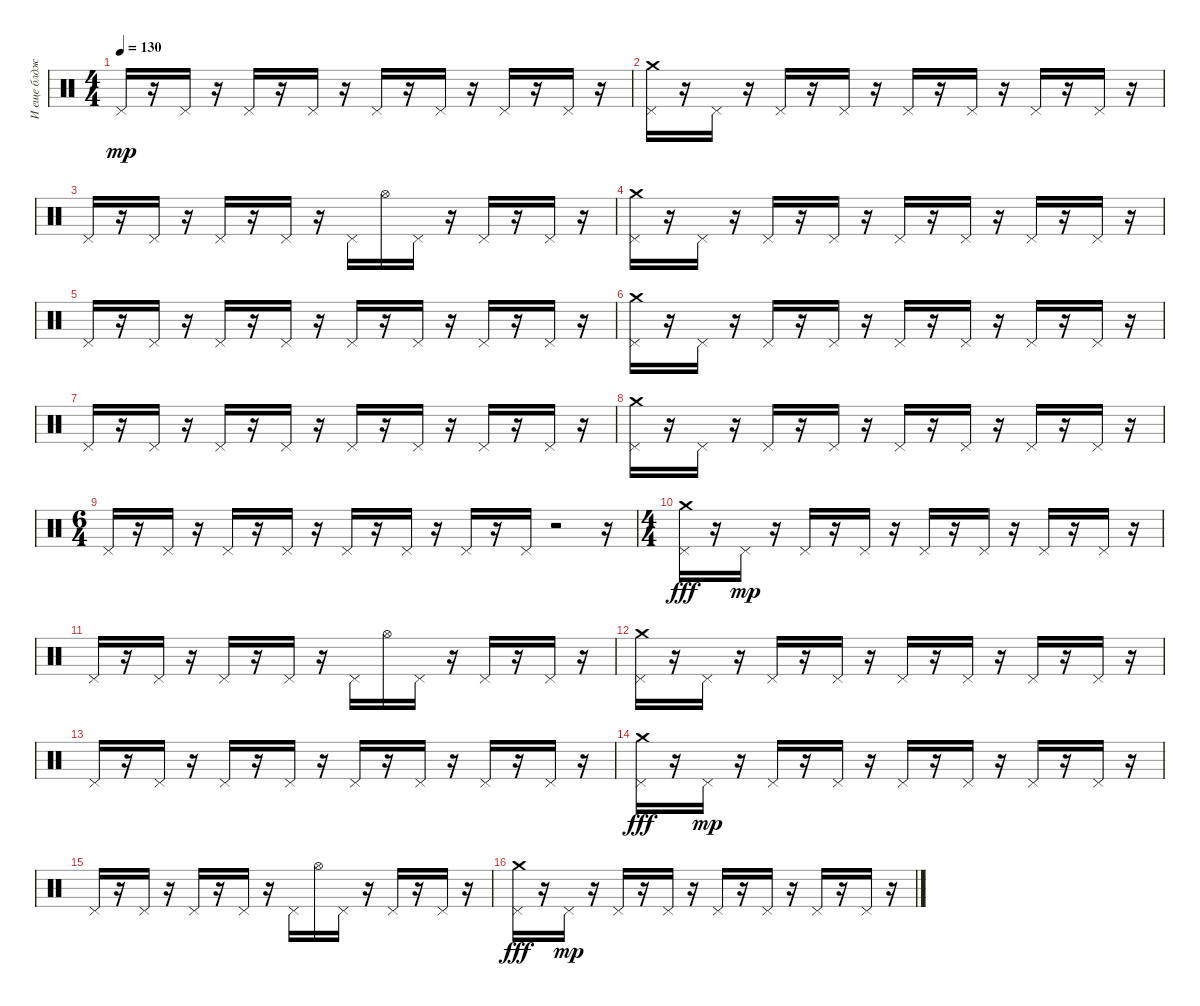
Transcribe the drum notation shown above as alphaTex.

\track ("И еще блджад" "И еще блдж") {instrument percussion}
\staff {score}
\articulation defaults
\ts (4 4)
\tempo 130
\clef neutral
\ks c "Pedal Hi-Hat (hit)".16{dy mp}
r.16 "Pedal Hi-Hat (hit)".16 r.16 "Pedal Hi-Hat (hit)".16 r.16 "Pedal Hi-Hat (hit)".16 r.16 "Pedal Hi-Hat (hit)".16 r.16 "Pedal Hi-Hat (hit)".16 r.16 "Pedal Hi-Hat (hit)".16 r.16 "Pedal Hi-Hat (hit)".16 r.16 |
("Crash medium (hit)" "Pedal Hi-Hat (hit)").16 r.16 "Pedal Hi-Hat (hit)".16 r.16 "Pedal Hi-Hat (hit)".16 r.16 "Pedal Hi-Hat (hit)".16 r.16 "Pedal Hi-Hat (hit)".16 r.16 "Pedal Hi-Hat (hit)".16 r.16 "Pedal Hi-Hat (hit)".16 r.16 "Pedal Hi-Hat (hit)".16 r.16 |
"Pedal Hi-Hat (hit)".16 r.16 "Pedal Hi-Hat (hit)".16 r.16 "Pedal Hi-Hat (hit)".16 r.16 "Pedal Hi-Hat (hit)".16 r.16 "Pedal Hi-Hat (hit)".16 "Hi-Hat (open)".16 "Pedal Hi-Hat (hit)".16 r.16 "Pedal Hi-Hat (hit)".16 r.16 "Pedal Hi-Hat (hit)".16 r.16 |
("Crash medium (hit)" "Pedal Hi-Hat (hit)").16 r.16 "Pedal Hi-Hat (hit)".16 r.16 "Pedal Hi-Hat (hit)".16 r.16 "Pedal Hi-Hat (hit)".16 r.16 "Pedal Hi-Hat (hit)".16 r.16 "Pedal Hi-Hat (hit)".16 r.16 "Pedal Hi-Hat (hit)".16 r.16 "Pedal Hi-Hat (hit)".16 r.16 |
"Pedal Hi-Hat (hit)".16 r.16 "Pedal Hi-Hat (hit)".16 r.16 "Pedal Hi-Hat (hit)".16 r.16 "Pedal Hi-Hat (hit)".16 r.16 "Pedal Hi-Hat (hit)".16 r.16 "Pedal Hi-Hat (hit)".16 r.16 "Pedal Hi-Hat (hit)".16 r.16 "Pedal Hi-Hat (hit)".16 r.16 |
("Crash medium (hit)" "Pedal Hi-Hat (hit)").16 r.16 "Pedal Hi-Hat (hit)".16 r.16 "Pedal Hi-Hat (hit)".16 r.16 "Pedal Hi-Hat (hit)".16 r.16 "Pedal Hi-Hat (hit)".16 r.16 "Pedal Hi-Hat (hit)".16 r.16 "Pedal Hi-Hat (hit)".16 r.16 "Pedal Hi-Hat (hit)".16 r.16 |
"Pedal Hi-Hat (hit)".16 r.16 "Pedal Hi-Hat (hit)".16 r.16 "Pedal Hi-Hat (hit)".16 r.16 "Pedal Hi-Hat (hit)".16 r.16 "Pedal Hi-Hat (hit)".16 r.16 "Pedal Hi-Hat (hit)".16 r.16 "Pedal Hi-Hat (hit)".16 r.16 "Pedal Hi-Hat (hit)".16 r.16 |
("Crash medium (hit)" "Pedal Hi-Hat (hit)").16 r.16 "Pedal Hi-Hat (hit)".16 r.16 "Pedal Hi-Hat (hit)".16 r.16 "Pedal Hi-Hat (hit)".16 r.16 "Pedal Hi-Hat (hit)".16 r.16 "Pedal Hi-Hat (hit)".16 r.16 "Pedal Hi-Hat (hit)".16 r.16 "Pedal Hi-Hat (hit)".16 r.16 |
\ts (6 4)
"Pedal Hi-Hat (hit)".16 r.16 "Pedal Hi-Hat (hit)".16 r.16 "Pedal Hi-Hat (hit)".16 r.16 "Pedal Hi-Hat (hit)".16 r.16 "Pedal Hi-Hat (hit)".16 r.16 "Pedal Hi-Hat (hit)".16 r.16 "Pedal Hi-Hat (hit)".16 r.16 "Pedal Hi-Hat (hit)".16 r.2 r.16 |
\ts (4 4)
("Pedal Hi-Hat (hit)" "Crash medium (hit)").16{dy fff} r.16 "Pedal Hi-Hat (hit)".16{dy mp} r.16 "Pedal Hi-Hat (hit)".16 r.16 "Pedal Hi-Hat (hit)".16 r.16 "Pedal Hi-Hat (hit)".16 r.16 "Pedal Hi-Hat (hit)".16 r.16 "Pedal Hi-Hat (hit)".16 r.16 "Pedal Hi-Hat (hit)".16 r.16 |
"Pedal Hi-Hat (hit)".16 r.16 "Pedal Hi-Hat (hit)".16 r.16 "Pedal Hi-Hat (hit)".16 r.16 "Pedal Hi-Hat (hit)".16 r.16 "Pedal Hi-Hat (hit)".16 "Hi-Hat (open)".16 "Pedal Hi-Hat (hit)".16 r.16 "Pedal Hi-Hat (hit)".16 r.16 "Pedal Hi-Hat (hit)".16 r.16 |
("Crash medium (hit)" "Pedal Hi-Hat (hit)").16 r.16 "Pedal Hi-Hat (hit)".16 r.16 "Pedal Hi-Hat (hit)".16 r.16 "Pedal Hi-Hat (hit)".16 r.16 "Pedal Hi-Hat (hit)".16 r.16 "Pedal Hi-Hat (hit)".16 r.16 "Pedal Hi-Hat (hit)".16 r.16 "Pedal Hi-Hat (hit)".16 r.16 |
"Pedal Hi-Hat (hit)".16 r.16 "Pedal Hi-Hat (hit)".16 r.16 "Pedal Hi-Hat (hit)".16 r.16 "Pedal Hi-Hat (hit)".16 r.16 "Pedal Hi-Hat (hit)".16 r.16 "Pedal Hi-Hat (hit)".16 r.16 "Pedal Hi-Hat (hit)".16 r.16 "Pedal Hi-Hat (hit)".16 r.16 |
("Pedal Hi-Hat (hit)" "Crash medium (hit)").16{dy fff} r.16 "Pedal Hi-Hat (hit)".16{dy mp} r.16 "Pedal Hi-Hat (hit)".16 r.16 "Pedal Hi-Hat (hit)".16 r.16 "Pedal Hi-Hat (hit)".16 r.16 "Pedal Hi-Hat (hit)".16 r.16 "Pedal Hi-Hat (hit)".16 r.16 "Pedal Hi-Hat (hit)".16 r.16 |
"Pedal Hi-Hat (hit)".16 r.16 "Pedal Hi-Hat (hit)".16 r.16 "Pedal Hi-Hat (hit)".16 r.16 "Pedal Hi-Hat (hit)".16 r.16 "Pedal Hi-Hat (hit)".16 "Hi-Hat (open)".16 "Pedal Hi-Hat (hit)".16 r.16 "Pedal Hi-Hat (hit)".16 r.16 "Pedal Hi-Hat (hit)".16 r.16 |
("Pedal Hi-Hat (hit)" "Crash medium (hit)").16{dy fff} r.16 "Pedal Hi-Hat (hit)".16{dy mp} r.16 "Pedal Hi-Hat (hit)".16 r.16 "Pedal Hi-Hat (hit)".16 r.16 "Pedal Hi-Hat (hit)".16 r.16 "Pedal Hi-Hat (hit)".16 r.16 "Pedal Hi-Hat (hit)".16 r.16 "Pedal Hi-Hat (hit)".16 r.16
